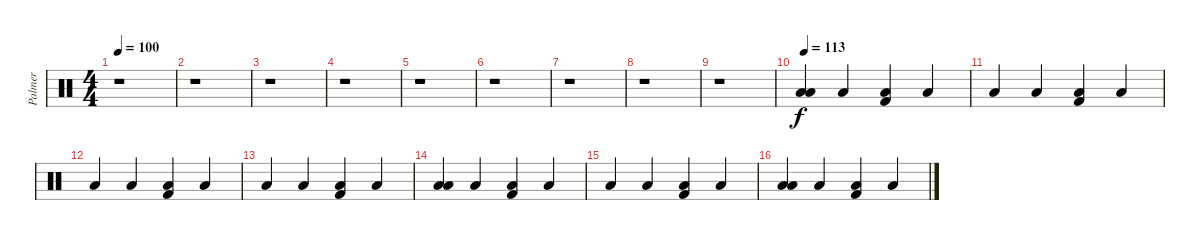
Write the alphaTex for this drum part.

\track ("Palmer" "Palmer") {instrument percussion}
\staff {score}
\articulation defaults
\ts (4 4)
\tempo 100
\clef neutral
\ks c
r.1{dy f} |
r.1 |
r.1 |
r.1 |
r.1 |
r.1 |
r.1 |
r.1 |
r.1 |
\tempo 113
("Low Floor Tom (hit)" "Low Tom (hit)").4 "Low Floor Tom (hit)".4 ("Low Floor Tom (hit)" "Kick (hit) 2").4 "Low Floor Tom (hit)".4 |
"Low Floor Tom (hit)".4 "Low Floor Tom (hit)".4 ("Low Floor Tom (hit)" "Kick (hit) 2").4 "Low Floor Tom (hit)".4 |
"Low Floor Tom (hit)".4 "Low Floor Tom (hit)".4 ("Low Floor Tom (hit)" "Kick (hit) 2").4 "Low Floor Tom (hit)".4 |
"Low Floor Tom (hit)".4 "Low Floor Tom (hit)".4 ("Low Floor Tom (hit)" "Kick (hit) 2").4 "Low Floor Tom (hit)".4 |
("Low Floor Tom (hit)" "Low Tom (hit)").4 "Low Floor Tom (hit)".4 ("Low Floor Tom (hit)" "Kick (hit) 2").4 "Low Floor Tom (hit)".4 |
"Low Floor Tom (hit)".4 "Low Floor Tom (hit)".4 ("Low Floor Tom (hit)" "Kick (hit) 2").4 "Low Floor Tom (hit)".4 |
("Low Floor Tom (hit)" "Low Tom (hit)").4 "Low Floor Tom (hit)".4 ("Low Floor Tom (hit)" "Kick (hit) 2").4 "Low Floor Tom (hit)".4
